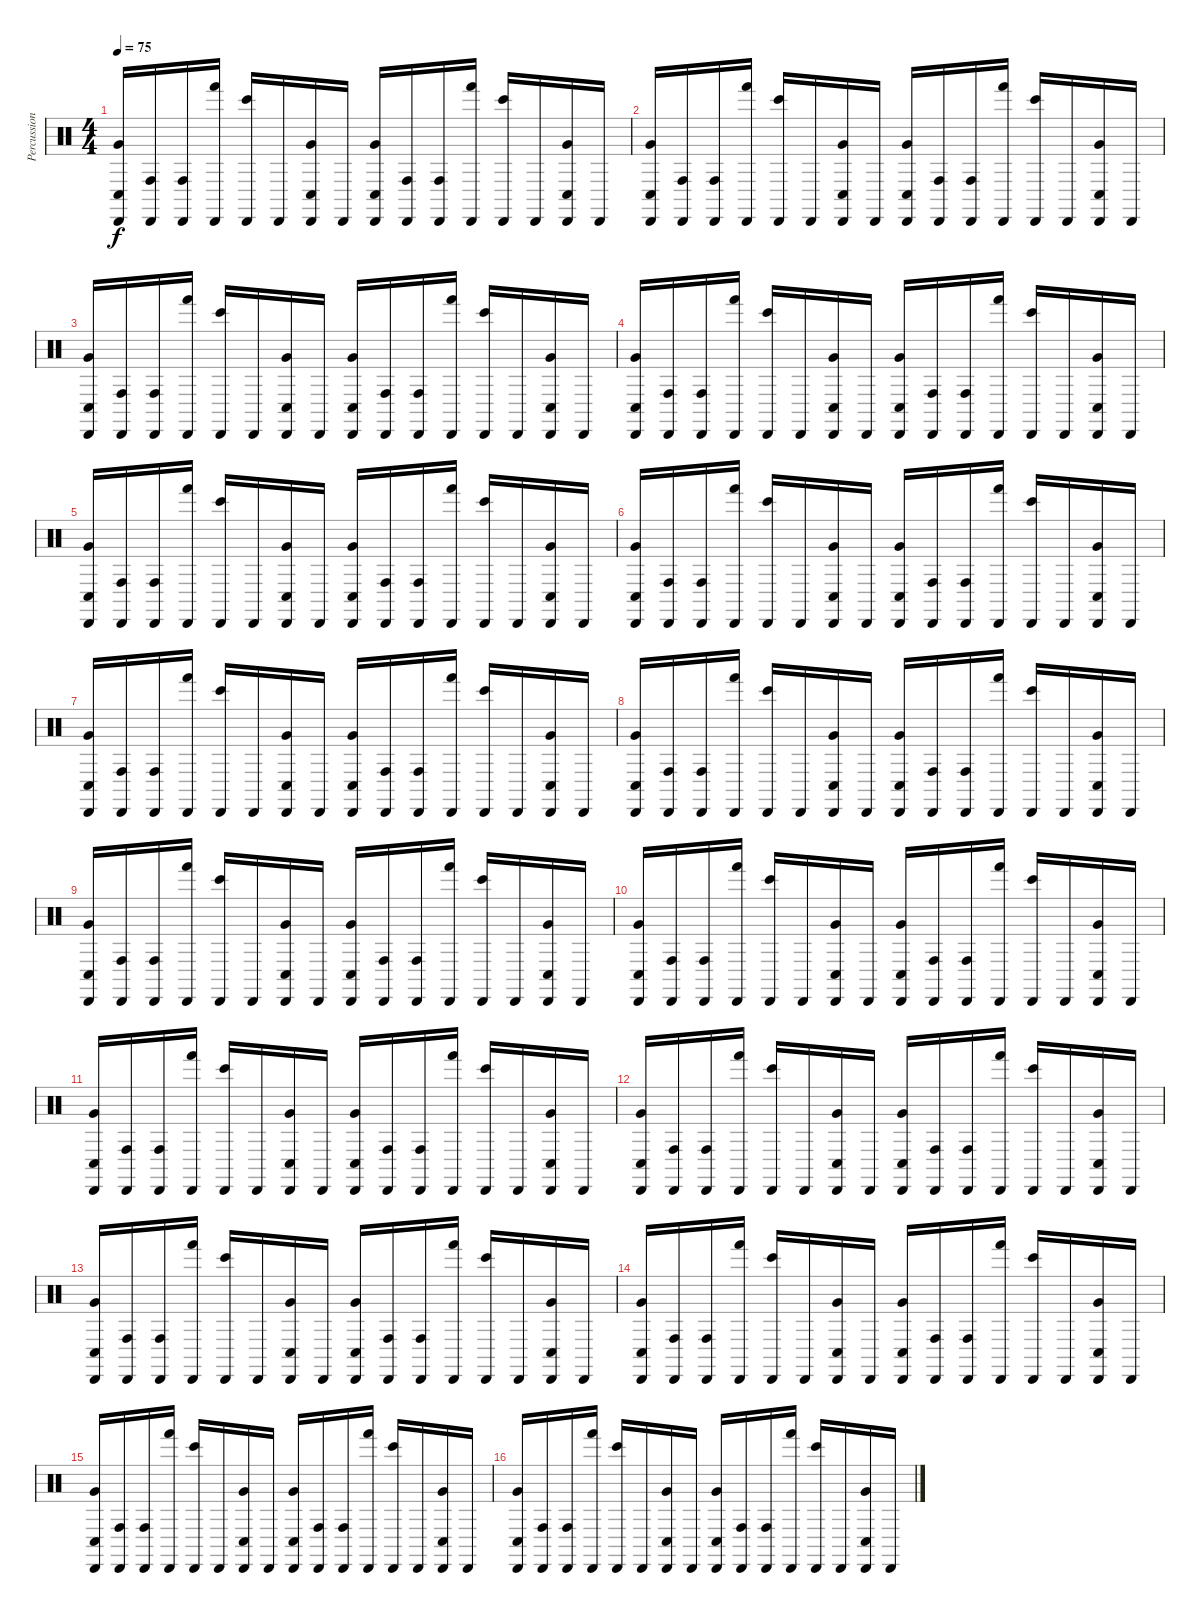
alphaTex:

\track ("Percussions" "Percussion") {instrument percussion}
\staff {score}
\articulation defaults
\ts (4 4)
\tempo 75
\clef neutral
\ks c
("Conga low (hit)" "Very Low Tom (hit)" "Cabasa (hit)").16{dy f} ("Conga high (hit)" "Cabasa (hit)").16 ("Conga high (hit)" "Cabasa (hit)").16 ("Hand (hit)" "Cabasa (hit)").16 ("Bongo High (hit)" "Cabasa (hit)").16 "Cabasa (hit)".16 ("Conga low (hit)" "Very Low Tom (hit)" "Cabasa (hit)").16 "Cabasa (hit)".16 ("Conga low (hit)" "Very Low Tom (hit)" "Cabasa (hit)").16 ("Conga high (hit)" "Cabasa (hit)").16 ("Conga high (hit)" "Cabasa (hit)").16 ("Hand (hit)" "Cabasa (hit)").16 ("Bongo High (hit)" "Cabasa (hit)").16 "Cabasa (hit)".16 ("Conga low (hit)" "Very Low Tom (hit)" "Cabasa (hit)").16 "Cabasa (hit)".16 |
("Conga low (hit)" "Very Low Tom (hit)" "Cabasa (hit)").16 ("Conga high (hit)" "Cabasa (hit)").16 ("Conga high (hit)" "Cabasa (hit)").16 ("Hand (hit)" "Cabasa (hit)").16 ("Bongo High (hit)" "Cabasa (hit)").16 "Cabasa (hit)".16 ("Conga low (hit)" "Very Low Tom (hit)" "Cabasa (hit)").16 "Cabasa (hit)".16 ("Conga low (hit)" "Very Low Tom (hit)" "Cabasa (hit)").16 ("Conga high (hit)" "Cabasa (hit)").16 ("Conga high (hit)" "Cabasa (hit)").16 ("Hand (hit)" "Cabasa (hit)").16 ("Bongo High (hit)" "Cabasa (hit)").16 "Cabasa (hit)".16 ("Conga low (hit)" "Very Low Tom (hit)" "Cabasa (hit)").16 "Cabasa (hit)".16 |
("Conga low (hit)" "Very Low Tom (hit)" "Cabasa (hit)").16 ("Conga high (hit)" "Cabasa (hit)").16 ("Conga high (hit)" "Cabasa (hit)").16 ("Hand (hit)" "Cabasa (hit)").16 ("Bongo High (hit)" "Cabasa (hit)").16 "Cabasa (hit)".16 ("Conga low (hit)" "Very Low Tom (hit)" "Cabasa (hit)").16 "Cabasa (hit)".16 ("Conga low (hit)" "Very Low Tom (hit)" "Cabasa (hit)").16 ("Conga high (hit)" "Cabasa (hit)").16 ("Conga high (hit)" "Cabasa (hit)").16 ("Hand (hit)" "Cabasa (hit)").16 ("Bongo High (hit)" "Cabasa (hit)").16 "Cabasa (hit)".16 ("Conga low (hit)" "Very Low Tom (hit)" "Cabasa (hit)").16 "Cabasa (hit)".16 |
("Conga low (hit)" "Very Low Tom (hit)" "Cabasa (hit)").16 ("Conga high (hit)" "Cabasa (hit)").16 ("Conga high (hit)" "Cabasa (hit)").16 ("Hand (hit)" "Cabasa (hit)").16 ("Bongo High (hit)" "Cabasa (hit)").16 "Cabasa (hit)".16 ("Conga low (hit)" "Very Low Tom (hit)" "Cabasa (hit)").16 "Cabasa (hit)".16 ("Conga low (hit)" "Very Low Tom (hit)" "Cabasa (hit)").16 ("Conga high (hit)" "Cabasa (hit)").16 ("Conga high (hit)" "Cabasa (hit)").16 ("Hand (hit)" "Cabasa (hit)").16 ("Bongo High (hit)" "Cabasa (hit)").16 "Cabasa (hit)".16 ("Conga low (hit)" "Very Low Tom (hit)" "Cabasa (hit)").16 "Cabasa (hit)".16 |
("Conga low (hit)" "Very Low Tom (hit)" "Cabasa (hit)").16 ("Conga high (hit)" "Cabasa (hit)").16 ("Conga high (hit)" "Cabasa (hit)").16 ("Hand (hit)" "Cabasa (hit)").16 ("Bongo High (hit)" "Cabasa (hit)").16 "Cabasa (hit)".16 ("Conga low (hit)" "Very Low Tom (hit)" "Cabasa (hit)").16 "Cabasa (hit)".16 ("Conga low (hit)" "Very Low Tom (hit)" "Cabasa (hit)").16 ("Conga high (hit)" "Cabasa (hit)").16 ("Conga high (hit)" "Cabasa (hit)").16 ("Hand (hit)" "Cabasa (hit)").16 ("Bongo High (hit)" "Cabasa (hit)").16 "Cabasa (hit)".16 ("Conga low (hit)" "Very Low Tom (hit)" "Cabasa (hit)").16 "Cabasa (hit)".16 |
("Conga low (hit)" "Very Low Tom (hit)" "Cabasa (hit)").16 ("Conga high (hit)" "Cabasa (hit)").16 ("Conga high (hit)" "Cabasa (hit)").16 ("Hand (hit)" "Cabasa (hit)").16 ("Bongo High (hit)" "Cabasa (hit)").16 "Cabasa (hit)".16 ("Conga low (hit)" "Very Low Tom (hit)" "Cabasa (hit)").16 "Cabasa (hit)".16 ("Conga low (hit)" "Very Low Tom (hit)" "Cabasa (hit)").16 ("Conga high (hit)" "Cabasa (hit)").16 ("Conga high (hit)" "Cabasa (hit)").16 ("Hand (hit)" "Cabasa (hit)").16 ("Bongo High (hit)" "Cabasa (hit)").16 "Cabasa (hit)".16 ("Conga low (hit)" "Very Low Tom (hit)" "Cabasa (hit)").16 "Cabasa (hit)".16 |
("Conga low (hit)" "Very Low Tom (hit)" "Cabasa (hit)").16 ("Conga high (hit)" "Cabasa (hit)").16 ("Conga high (hit)" "Cabasa (hit)").16 ("Hand (hit)" "Cabasa (hit)").16 ("Bongo High (hit)" "Cabasa (hit)").16 "Cabasa (hit)".16 ("Conga low (hit)" "Very Low Tom (hit)" "Cabasa (hit)").16 "Cabasa (hit)".16 ("Conga low (hit)" "Very Low Tom (hit)" "Cabasa (hit)").16 ("Conga high (hit)" "Cabasa (hit)").16 ("Conga high (hit)" "Cabasa (hit)").16 ("Hand (hit)" "Cabasa (hit)").16 ("Bongo High (hit)" "Cabasa (hit)").16 "Cabasa (hit)".16 ("Conga low (hit)" "Very Low Tom (hit)" "Cabasa (hit)").16 "Cabasa (hit)".16 |
("Conga low (hit)" "Very Low Tom (hit)" "Cabasa (hit)").16 ("Conga high (hit)" "Cabasa (hit)").16 ("Conga high (hit)" "Cabasa (hit)").16 ("Hand (hit)" "Cabasa (hit)").16 ("Bongo High (hit)" "Cabasa (hit)").16 "Cabasa (hit)".16 ("Conga low (hit)" "Very Low Tom (hit)" "Cabasa (hit)").16 "Cabasa (hit)".16 ("Conga low (hit)" "Very Low Tom (hit)" "Cabasa (hit)").16 ("Conga high (hit)" "Cabasa (hit)").16 ("Conga high (hit)" "Cabasa (hit)").16 ("Hand (hit)" "Cabasa (hit)").16 ("Bongo High (hit)" "Cabasa (hit)").16 "Cabasa (hit)".16 ("Conga low (hit)" "Very Low Tom (hit)" "Cabasa (hit)").16 "Cabasa (hit)".16 |
("Conga low (hit)" "Very Low Tom (hit)" "Cabasa (hit)").16 ("Conga high (hit)" "Cabasa (hit)").16 ("Conga high (hit)" "Cabasa (hit)").16 ("Hand (hit)" "Cabasa (hit)").16 ("Bongo High (hit)" "Cabasa (hit)").16 "Cabasa (hit)".16 ("Conga low (hit)" "Very Low Tom (hit)" "Cabasa (hit)").16 "Cabasa (hit)".16 ("Conga low (hit)" "Very Low Tom (hit)" "Cabasa (hit)").16 ("Conga high (hit)" "Cabasa (hit)").16 ("Conga high (hit)" "Cabasa (hit)").16 ("Hand (hit)" "Cabasa (hit)").16 ("Bongo High (hit)" "Cabasa (hit)").16 "Cabasa (hit)".16 ("Conga low (hit)" "Very Low Tom (hit)" "Cabasa (hit)").16 "Cabasa (hit)".16 |
("Conga low (hit)" "Very Low Tom (hit)" "Cabasa (hit)").16 ("Conga high (hit)" "Cabasa (hit)").16 ("Conga high (hit)" "Cabasa (hit)").16 ("Hand (hit)" "Cabasa (hit)").16 ("Bongo High (hit)" "Cabasa (hit)").16 "Cabasa (hit)".16 ("Conga low (hit)" "Very Low Tom (hit)" "Cabasa (hit)").16 "Cabasa (hit)".16 ("Conga low (hit)" "Very Low Tom (hit)" "Cabasa (hit)").16 ("Conga high (hit)" "Cabasa (hit)").16 ("Conga high (hit)" "Cabasa (hit)").16 ("Hand (hit)" "Cabasa (hit)").16 ("Bongo High (hit)" "Cabasa (hit)").16 "Cabasa (hit)".16 ("Conga low (hit)" "Very Low Tom (hit)" "Cabasa (hit)").16 "Cabasa (hit)".16 |
("Conga low (hit)" "Very Low Tom (hit)" "Cabasa (hit)").16 ("Conga high (hit)" "Cabasa (hit)").16 ("Conga high (hit)" "Cabasa (hit)").16 ("Hand (hit)" "Cabasa (hit)").16 ("Bongo High (hit)" "Cabasa (hit)").16 "Cabasa (hit)".16 ("Conga low (hit)" "Very Low Tom (hit)" "Cabasa (hit)").16 "Cabasa (hit)".16 ("Conga low (hit)" "Very Low Tom (hit)" "Cabasa (hit)").16 ("Conga high (hit)" "Cabasa (hit)").16 ("Conga high (hit)" "Cabasa (hit)").16 ("Hand (hit)" "Cabasa (hit)").16 ("Bongo High (hit)" "Cabasa (hit)").16 "Cabasa (hit)".16 ("Conga low (hit)" "Very Low Tom (hit)" "Cabasa (hit)").16 "Cabasa (hit)".16 |
("Conga low (hit)" "Very Low Tom (hit)" "Cabasa (hit)").16 ("Conga high (hit)" "Cabasa (hit)").16 ("Conga high (hit)" "Cabasa (hit)").16 ("Hand (hit)" "Cabasa (hit)").16 ("Bongo High (hit)" "Cabasa (hit)").16 "Cabasa (hit)".16 ("Conga low (hit)" "Very Low Tom (hit)" "Cabasa (hit)").16 "Cabasa (hit)".16 ("Conga low (hit)" "Very Low Tom (hit)" "Cabasa (hit)").16 ("Conga high (hit)" "Cabasa (hit)").16 ("Conga high (hit)" "Cabasa (hit)").16 ("Hand (hit)" "Cabasa (hit)").16 ("Bongo High (hit)" "Cabasa (hit)").16 "Cabasa (hit)".16 ("Conga low (hit)" "Very Low Tom (hit)" "Cabasa (hit)").16 "Cabasa (hit)".16 |
("Conga low (hit)" "Very Low Tom (hit)" "Cabasa (hit)").16 ("Conga high (hit)" "Cabasa (hit)").16 ("Conga high (hit)" "Cabasa (hit)").16 ("Hand (hit)" "Cabasa (hit)").16 ("Bongo High (hit)" "Cabasa (hit)").16 "Cabasa (hit)".16 ("Conga low (hit)" "Very Low Tom (hit)" "Cabasa (hit)").16 "Cabasa (hit)".16 ("Conga low (hit)" "Very Low Tom (hit)" "Cabasa (hit)").16 ("Conga high (hit)" "Cabasa (hit)").16 ("Conga high (hit)" "Cabasa (hit)").16 ("Hand (hit)" "Cabasa (hit)").16 ("Bongo High (hit)" "Cabasa (hit)").16 "Cabasa (hit)".16 ("Conga low (hit)" "Very Low Tom (hit)" "Cabasa (hit)").16 "Cabasa (hit)".16 |
("Conga low (hit)" "Very Low Tom (hit)" "Cabasa (hit)").16 ("Conga high (hit)" "Cabasa (hit)").16 ("Conga high (hit)" "Cabasa (hit)").16 ("Hand (hit)" "Cabasa (hit)").16 ("Bongo High (hit)" "Cabasa (hit)").16 "Cabasa (hit)".16 ("Conga low (hit)" "Very Low Tom (hit)" "Cabasa (hit)").16 "Cabasa (hit)".16 ("Conga low (hit)" "Very Low Tom (hit)" "Cabasa (hit)").16 ("Conga high (hit)" "Cabasa (hit)").16 ("Conga high (hit)" "Cabasa (hit)").16 ("Hand (hit)" "Cabasa (hit)").16 ("Bongo High (hit)" "Cabasa (hit)").16 "Cabasa (hit)".16 ("Conga low (hit)" "Very Low Tom (hit)" "Cabasa (hit)").16 "Cabasa (hit)".16 |
("Conga low (hit)" "Very Low Tom (hit)" "Cabasa (hit)").16 ("Conga high (hit)" "Cabasa (hit)").16 ("Conga high (hit)" "Cabasa (hit)").16 ("Hand (hit)" "Cabasa (hit)").16 ("Bongo High (hit)" "Cabasa (hit)").16 "Cabasa (hit)".16 ("Conga low (hit)" "Very Low Tom (hit)" "Cabasa (hit)").16 "Cabasa (hit)".16 ("Conga low (hit)" "Very Low Tom (hit)" "Cabasa (hit)").16 ("Conga high (hit)" "Cabasa (hit)").16 ("Conga high (hit)" "Cabasa (hit)").16 ("Hand (hit)" "Cabasa (hit)").16 ("Bongo High (hit)" "Cabasa (hit)").16 "Cabasa (hit)".16 ("Conga low (hit)" "Very Low Tom (hit)" "Cabasa (hit)").16 "Cabasa (hit)".16 |
("Conga low (hit)" "Very Low Tom (hit)" "Cabasa (hit)").16 ("Conga high (hit)" "Cabasa (hit)").16 ("Conga high (hit)" "Cabasa (hit)").16 ("Hand (hit)" "Cabasa (hit)").16 ("Bongo High (hit)" "Cabasa (hit)").16 "Cabasa (hit)".16 ("Conga low (hit)" "Very Low Tom (hit)" "Cabasa (hit)").16 "Cabasa (hit)".16 ("Conga low (hit)" "Very Low Tom (hit)" "Cabasa (hit)").16 ("Conga high (hit)" "Cabasa (hit)").16 ("Conga high (hit)" "Cabasa (hit)").16 ("Hand (hit)" "Cabasa (hit)").16 ("Bongo High (hit)" "Cabasa (hit)").16 "Cabasa (hit)".16 ("Conga low (hit)" "Very Low Tom (hit)" "Cabasa (hit)").16 "Cabasa (hit)".16
